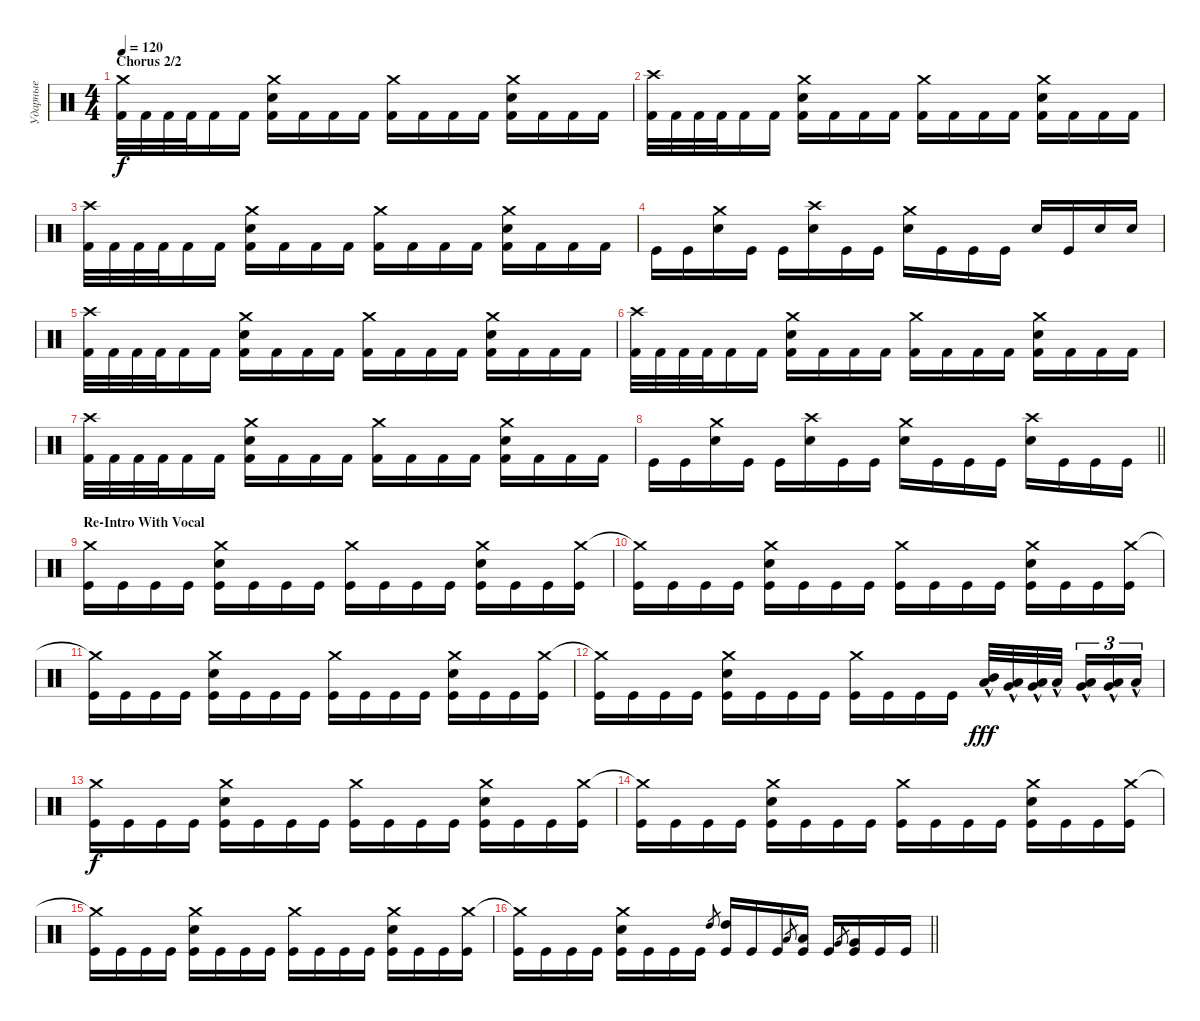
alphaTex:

\track ("Ударные" "Ударные") {instrument percussion}
\staff {score}
\articulation defaults
\ts (4 4)
\section ("" "Chorus 2/2")
\tempo 120
\clef neutral
\ks c
("Crash medium (hit)" "Kick (hit) 2").32{dy f} "Kick (hit) 2".32 "Kick (hit) 2".32 "Kick (hit) 2".32 "Kick (hit) 2".16 "Kick (hit) 2".16 ("Crash medium (hit)" "Electric Snare (hit)" "Kick (hit) 2").16 "Kick (hit) 2".16 "Kick (hit) 2".16 "Kick (hit) 2".16 ("Crash medium (hit)" "Kick (hit) 2").16 "Kick (hit) 2".16 "Kick (hit) 2".16 "Kick (hit) 2".16 ("Crash medium (hit)" "Electric Snare (hit)" "Kick (hit) 2").16 "Kick (hit) 2".16 "Kick (hit) 2".16 "Kick (hit) 2".16 |
("Crash high (hit)" "Kick (hit) 2").32 "Kick (hit) 2".32 "Kick (hit) 2".32 "Kick (hit) 2".32 "Kick (hit) 2".16 "Kick (hit) 2".16 ("Crash medium (hit)" "Electric Snare (hit)" "Kick (hit) 2").16 "Kick (hit) 2".16 "Kick (hit) 2".16 "Kick (hit) 2".16 ("Crash medium (hit)" "Kick (hit) 2").16 "Kick (hit) 2".16 "Kick (hit) 2".16 "Kick (hit) 2".16 ("Crash medium (hit)" "Electric Snare (hit)" "Kick (hit) 2").16 "Kick (hit) 2".16 "Kick (hit) 2".16 "Kick (hit) 2".16 |
("Crash high (hit)" "Kick (hit) 2").32 "Kick (hit) 2".32 "Kick (hit) 2".32 "Kick (hit) 2".32 "Kick (hit) 2".16 "Kick (hit) 2".16 ("Crash medium (hit)" "Electric Snare (hit)" "Kick (hit) 2").16 "Kick (hit) 2".16 "Kick (hit) 2".16 "Kick (hit) 2".16 ("Crash medium (hit)" "Kick (hit) 2").16 "Kick (hit) 2".16 "Kick (hit) 2".16 "Kick (hit) 2".16 ("Crash medium (hit)" "Electric Snare (hit)" "Kick (hit) 2").16 "Kick (hit) 2".16 "Kick (hit) 2".16 "Kick (hit) 2".16 |
"Kick (hit)".16 "Kick (hit)".16 ("Crash medium (hit)" "Electric Snare (hit)").16 "Kick (hit)".16 "Kick (hit)".16 ("Crash high (hit)" "Electric Snare (hit)").16 "Kick (hit)".16 "Kick (hit)".16 ("Crash medium (hit)" "Electric Snare (hit)").16 "Kick (hit)".16 "Kick (hit)".16 "Kick (hit)".16 "Electric Snare (hit)".16 "Kick (hit)".16 "Electric Snare (hit)".16 "Electric Snare (hit)".16 |
("Crash high (hit)" "Kick (hit) 2").32 "Kick (hit) 2".32 "Kick (hit) 2".32 "Kick (hit) 2".32 "Kick (hit) 2".16 "Kick (hit) 2".16 ("Crash medium (hit)" "Electric Snare (hit)" "Kick (hit) 2").16 "Kick (hit) 2".16 "Kick (hit) 2".16 "Kick (hit) 2".16 ("Crash medium (hit)" "Kick (hit) 2").16 "Kick (hit) 2".16 "Kick (hit) 2".16 "Kick (hit) 2".16 ("Crash medium (hit)" "Electric Snare (hit)" "Kick (hit) 2").16 "Kick (hit) 2".16 "Kick (hit) 2".16 "Kick (hit) 2".16 |
("Crash high (hit)" "Kick (hit) 2").32 "Kick (hit) 2".32 "Kick (hit) 2".32 "Kick (hit) 2".32 "Kick (hit) 2".16 "Kick (hit) 2".16 ("Crash medium (hit)" "Electric Snare (hit)" "Kick (hit) 2").16 "Kick (hit) 2".16 "Kick (hit) 2".16 "Kick (hit) 2".16 ("Crash medium (hit)" "Kick (hit) 2").16 "Kick (hit) 2".16 "Kick (hit) 2".16 "Kick (hit) 2".16 ("Crash medium (hit)" "Electric Snare (hit)" "Kick (hit) 2").16 "Kick (hit) 2".16 "Kick (hit) 2".16 "Kick (hit) 2".16 |
("Crash high (hit)" "Kick (hit) 2").32 "Kick (hit) 2".32 "Kick (hit) 2".32 "Kick (hit) 2".32 "Kick (hit) 2".16 "Kick (hit) 2".16 ("Crash medium (hit)" "Electric Snare (hit)" "Kick (hit) 2").16 "Kick (hit) 2".16 "Kick (hit) 2".16 "Kick (hit) 2".16 ("Crash medium (hit)" "Kick (hit) 2").16 "Kick (hit) 2".16 "Kick (hit) 2".16 "Kick (hit) 2".16 ("Crash medium (hit)" "Electric Snare (hit)" "Kick (hit) 2").16 "Kick (hit) 2".16 "Kick (hit) 2".16 "Kick (hit) 2".16 |
\barLineRight lightlight "Kick (hit)".16 "Kick (hit)".16
("Crash medium (hit)" "Electric Snare (hit)").16 "Kick (hit)".16 "Kick (hit)".16 ("Crash high (hit)" "Electric Snare (hit)").16 "Kick (hit)".16 "Kick (hit)".16 ("Crash medium (hit)" "Electric Snare (hit)").16 "Kick (hit)".16 "Kick (hit)".16 "Kick (hit)".16 ("Crash high (hit)" "Electric Snare (hit)").16 "Kick (hit)".16 "Kick (hit)".16 "Kick (hit)".16 |
\section ("" "Re-Intro With Vocal")
("Crash medium (hit)" "Kick (hit)").16 "Kick (hit)".16 "Kick (hit)".16 "Kick (hit)".16 ("Crash medium (hit)" "Electric Snare (hit)" "Kick (hit)").16 "Kick (hit)".16 "Kick (hit)".16 "Kick (hit)".16 ("Crash medium (hit)" "Kick (hit)").16 "Kick (hit)".16 "Kick (hit)".16 "Kick (hit)".16 ("Crash medium (hit)" "Electric Snare (hit)" "Kick (hit)").16 "Kick (hit)".16 "Kick (hit)".16 ("Crash medium (hit)" "Kick (hit)").16 |
("Crash medium (hit)"{t} "Kick (hit)").16 "Kick (hit)".16 "Kick (hit)".16 "Kick (hit)".16 ("Crash medium (hit)" "Electric Snare (hit)" "Kick (hit)").16 "Kick (hit)".16 "Kick (hit)".16 "Kick (hit)".16 ("Crash medium (hit)" "Kick (hit)").16 "Kick (hit)".16 "Kick (hit)".16 "Kick (hit)".16 ("Crash medium (hit)" "Electric Snare (hit)" "Kick (hit)").16 "Kick (hit)".16 "Kick (hit)".16 ("Crash medium (hit)" "Kick (hit)").16 |
("Crash medium (hit)"{t} "Kick (hit)").16 "Kick (hit)".16 "Kick (hit)".16 "Kick (hit)".16 ("Crash medium (hit)" "Electric Snare (hit)" "Kick (hit)").16 "Kick (hit)".16 "Kick (hit)".16 "Kick (hit)".16 ("Crash medium (hit)" "Kick (hit)").16 "Kick (hit)".16 "Kick (hit)".16 "Kick (hit)".16 ("Crash medium (hit)" "Electric Snare (hit)" "Kick (hit)").16 "Kick (hit)".16 "Kick (hit)".16 ("Crash medium (hit)" "Kick (hit)").16 |
("Crash medium (hit)"{t} "Kick (hit)").16 "Kick (hit)".16 "Kick (hit)".16 "Kick (hit)".16 ("Crash medium (hit)" "Electric Snare (hit)" "Kick (hit)").16 "Kick (hit)".16 "Kick (hit)".16 "Kick (hit)".16 ("Crash medium (hit)" "Kick (hit)").16 "Kick (hit)".16 "Kick (hit)".16 "Kick (hit)".16 ("Mid Tom (hit)"{hac} "Low Tom (hit)"{hac}).32{dy fff} ("Low Tom (hit)"{hac} "Very Low Tom (hit)"{hac}).32 ("Very Low Tom (hit)"{hac} "Low Floor Tom (hit)"{hac}).32 "Low Floor Tom (hit)"{hac}.32{beam splitsecondary} ("Low Tom (hit)"{hac} "Very Low Tom (hit)"{hac}).16{tu (3 2)} ("Very Low Tom (hit)"{hac} "Low Floor Tom (hit)"{hac}).16{tu (3 2)} "Low Floor Tom (hit)"{hac}.16{tu (3 2)} |
("Crash medium (hit)" "Kick (hit)").16{dy f} "Kick (hit)".16 "Kick (hit)".16 "Kick (hit)".16 ("Crash medium (hit)" "Electric Snare (hit)" "Kick (hit)").16 "Kick (hit)".16 "Kick (hit)".16 "Kick (hit)".16 ("Crash medium (hit)" "Kick (hit)").16 "Kick (hit)".16 "Kick (hit)".16 "Kick (hit)".16 ("Crash medium (hit)" "Electric Snare (hit)" "Kick (hit)").16 "Kick (hit)".16 "Kick (hit)".16 ("Crash medium (hit)" "Kick (hit)").16 |
("Crash medium (hit)"{t} "Kick (hit)").16 "Kick (hit)".16 "Kick (hit)".16 "Kick (hit)".16 ("Crash medium (hit)" "Electric Snare (hit)" "Kick (hit)").16 "Kick (hit)".16 "Kick (hit)".16 "Kick (hit)".16 ("Crash medium (hit)" "Kick (hit)").16 "Kick (hit)".16 "Kick (hit)".16 "Kick (hit)".16 ("Crash medium (hit)" "Electric Snare (hit)" "Kick (hit)").16 "Kick (hit)".16 "Kick (hit)".16 ("Crash medium (hit)" "Kick (hit)").16 |
("Crash medium (hit)"{t} "Kick (hit)").16 "Kick (hit)".16 "Kick (hit)".16 "Kick (hit)".16 ("Crash medium (hit)" "Electric Snare (hit)" "Kick (hit)").16 "Kick (hit)".16 "Kick (hit)".16 "Kick (hit)".16 ("Crash medium (hit)" "Kick (hit)").16 "Kick (hit)".16 "Kick (hit)".16 "Kick (hit)".16 ("Crash medium (hit)" "Electric Snare (hit)" "Kick (hit)").16 "Kick (hit)".16 "Kick (hit)".16 ("Crash medium (hit)" "Kick (hit)").16 |
\barLineRight lightlight
("Crash medium (hit)"{t} "Kick (hit)").16 "Kick (hit)".16 "Kick (hit)".16 "Kick (hit)".16 ("Crash medium (hit)" "Electric Snare (hit)" "Kick (hit)").16 "Kick (hit)".16 "Kick (hit)".16 "Kick (hit)".16 "High Tom (hit)".8{gr} ("High Tom (hit)" "Kick (hit)").16 "Kick (hit)".16 "Kick (hit)".16 "Low Tom (hit)".8{gr} ("Low Tom (hit)" "Kick (hit)").16 "Kick (hit)".16 "Very Low Tom (hit)".8{gr} ("Very Low Tom (hit)" "Kick (hit)").16 "Kick (hit)".16 "Kick (hit)".16
